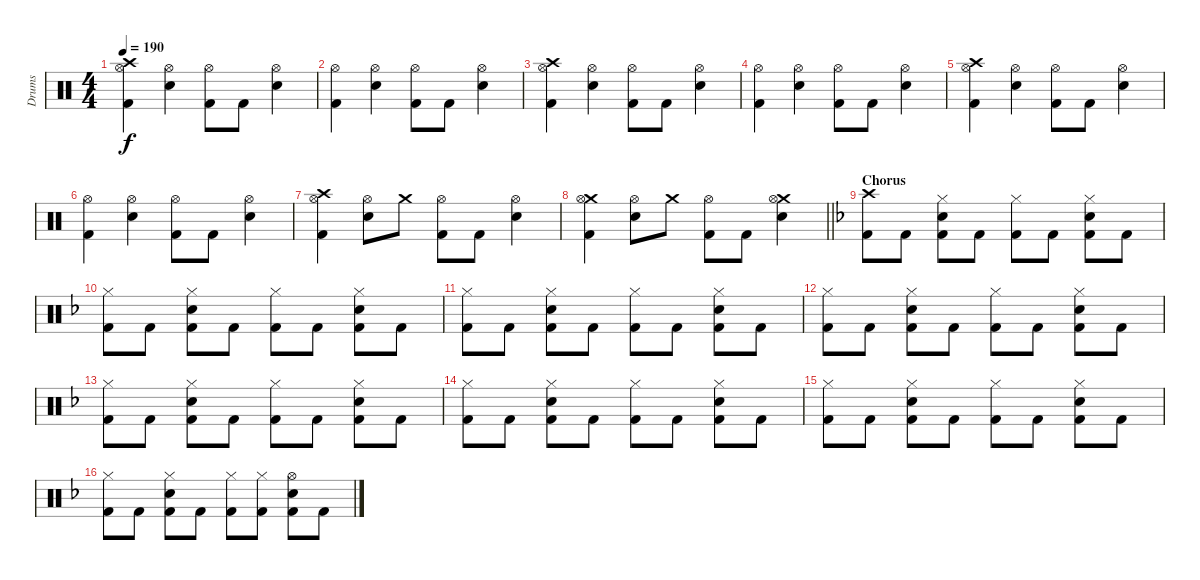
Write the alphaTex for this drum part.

\track ("Drums" "Drums") {instrument percussion}
\staff {score}
\articulation defaults
\ts (4 4)
\tempo 190
\clef neutral
\ks c
("Crash high (hit)" "Hi-Hat (open)" "Kick (hit) 2").4{dy f} ("Hi-Hat (open)" "Electric Snare (hit)").4 ("Hi-Hat (open)" "Kick (hit) 2").8 "Kick (hit) 2".8 ("Hi-Hat (open)" "Electric Snare (hit)").4 |
("Hi-Hat (open)" "Kick (hit) 2").4 ("Hi-Hat (open)" "Electric Snare (hit)").4 ("Hi-Hat (open)" "Kick (hit) 2").8 "Kick (hit) 2".8 ("Hi-Hat (open)" "Electric Snare (hit)").4 |
("Crash high (hit)" "Hi-Hat (open)" "Kick (hit) 2").4 ("Hi-Hat (open)" "Electric Snare (hit)").4 ("Hi-Hat (open)" "Kick (hit) 2").8 "Kick (hit) 2".8 ("Hi-Hat (open)" "Electric Snare (hit)").4 |
("Hi-Hat (open)" "Kick (hit) 2").4 ("Hi-Hat (open)" "Electric Snare (hit)").4 ("Hi-Hat (open)" "Kick (hit) 2").8 "Kick (hit) 2".8 ("Hi-Hat (open)" "Electric Snare (hit)").4 |
("Crash high (hit)" "Hi-Hat (open)" "Kick (hit) 2").4 ("Hi-Hat (open)" "Electric Snare (hit)").4 ("Hi-Hat (open)" "Kick (hit) 2").8 "Kick (hit) 2".8 ("Hi-Hat (open)" "Electric Snare (hit)").4 |
("Hi-Hat (open)" "Kick (hit) 2").4 ("Hi-Hat (open)" "Electric Snare (hit)").4 ("Hi-Hat (open)" "Kick (hit) 2").8 "Kick (hit) 2".8 ("Hi-Hat (open)" "Electric Snare (hit)").4 |
("Crash high (hit)" "Hi-Hat (open)" "Kick (hit) 2").4 ("Hi-Hat (open)" "Electric Snare (hit)").8 "Crash medium (hit)".8 ("Hi-Hat (open)" "Kick (hit) 2").8 "Kick (hit) 2".8 ("Hi-Hat (open)" "Electric Snare (hit)").4 |
\barLineRight lightlight
("Crash medium (hit)" "Hi-Hat (open)" "Kick (hit) 2").4 ("Hi-Hat (open)" "Electric Snare (hit)").8 "Crash medium (hit)".8 ("Hi-Hat (open)" "Kick (hit) 2").8 "Kick (hit) 2".8 ("Crash medium (hit)" "Hi-Hat (open)" "Electric Snare (hit)").4 |
\section ("" "Chorus")
\ks dminor
("Crash high (hit)" "Kick (hit) 2").8 "Kick (hit) 2".8 ("Hi-Hat (closed)" "Electric Snare (hit)" "Kick (hit) 2").8 "Kick (hit) 2".8 ("Hi-Hat (closed)" "Kick (hit) 2").8 "Kick (hit) 2".8 ("Hi-Hat (closed)" "Electric Snare (hit)" "Kick (hit) 2").8 "Kick (hit) 2".8 |
("Hi-Hat (closed)" "Kick (hit) 2").8 "Kick (hit) 2".8 ("Hi-Hat (closed)" "Electric Snare (hit)" "Kick (hit) 2").8 "Kick (hit) 2".8 ("Hi-Hat (closed)" "Kick (hit) 2").8 "Kick (hit) 2".8 ("Hi-Hat (closed)" "Electric Snare (hit)" "Kick (hit) 2").8 "Kick (hit) 2".8 |
("Hi-Hat (closed)" "Kick (hit) 2").8 "Kick (hit) 2".8 ("Hi-Hat (closed)" "Electric Snare (hit)" "Kick (hit) 2").8 "Kick (hit) 2".8 ("Hi-Hat (closed)" "Kick (hit) 2").8 "Kick (hit) 2".8 ("Hi-Hat (closed)" "Electric Snare (hit)" "Kick (hit) 2").8 "Kick (hit) 2".8 |
("Hi-Hat (closed)" "Kick (hit) 2").8 "Kick (hit) 2".8 ("Hi-Hat (closed)" "Electric Snare (hit)" "Kick (hit) 2").8 "Kick (hit) 2".8 ("Hi-Hat (closed)" "Kick (hit) 2").8 "Kick (hit) 2".8 ("Hi-Hat (closed)" "Electric Snare (hit)" "Kick (hit) 2").8 "Kick (hit) 2".8 |
("Hi-Hat (closed)" "Kick (hit) 2").8 "Kick (hit) 2".8 ("Hi-Hat (closed)" "Electric Snare (hit)" "Kick (hit) 2").8 "Kick (hit) 2".8 ("Hi-Hat (closed)" "Kick (hit) 2").8 "Kick (hit) 2".8 ("Hi-Hat (closed)" "Electric Snare (hit)" "Kick (hit) 2").8 "Kick (hit) 2".8 |
("Hi-Hat (closed)" "Kick (hit) 2").8 "Kick (hit) 2".8 ("Hi-Hat (closed)" "Electric Snare (hit)" "Kick (hit) 2").8 "Kick (hit) 2".8 ("Hi-Hat (closed)" "Kick (hit) 2").8 "Kick (hit) 2".8 ("Hi-Hat (closed)" "Electric Snare (hit)" "Kick (hit) 2").8 "Kick (hit) 2".8 |
("Hi-Hat (closed)" "Kick (hit) 2").8 "Kick (hit) 2".8 ("Hi-Hat (closed)" "Electric Snare (hit)" "Kick (hit) 2").8 "Kick (hit) 2".8 ("Hi-Hat (closed)" "Kick (hit) 2").8 "Kick (hit) 2".8 ("Hi-Hat (closed)" "Electric Snare (hit)" "Kick (hit) 2").8 "Kick (hit) 2".8 |
("Hi-Hat (closed)" "Kick (hit) 2").8 "Kick (hit) 2".8 ("Hi-Hat (closed)" "Electric Snare (hit)" "Kick (hit) 2").8 "Kick (hit) 2".8 ("Hi-Hat (closed)" "Kick (hit) 2").8 ("Hi-Hat (closed)" "Kick (hit) 2").8 ("Hi-Hat (open)" "Electric Snare (hit)" "Kick (hit) 2").8 "Kick (hit) 2".8
